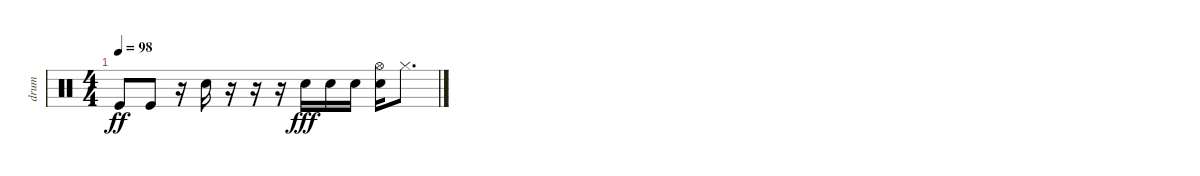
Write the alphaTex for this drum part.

\track ("drum" "drum") {instrument percussion}
\staff {score}
\articulation defaults
\ts (4 4)
\tempo 98
\clef neutral
\ks c "Kick (hit)".8{dy ff} "Kick (hit)".8
r.16 "Electric Snare (hit)".16 r.16 r.16 r.16 "Electric Snare (hit)".16{dy fff} "Electric Snare (hit)".16 "Electric Snare (hit)".16 ("Hi-Hat (open)" "Electric Snare (hit)").16 "Hi-Hat (closed)".8{d}
